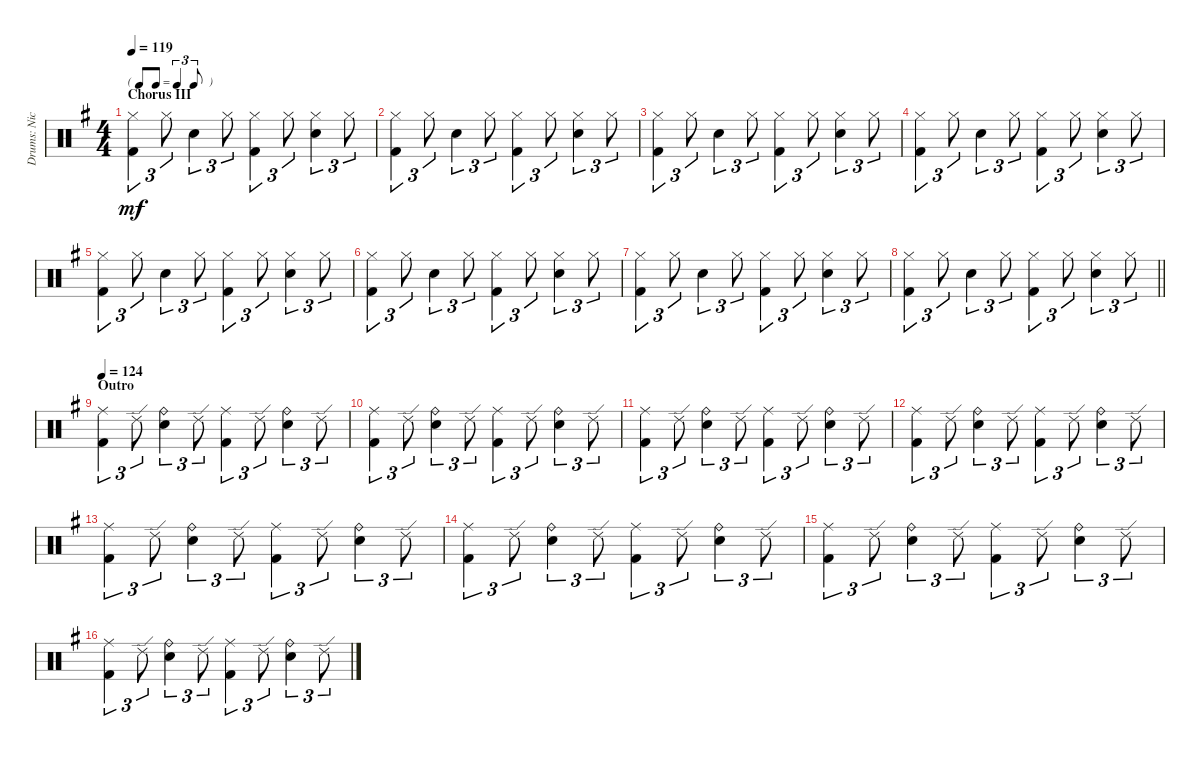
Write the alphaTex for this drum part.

\track ("Drums: Nick" "Drums: Nic") {instrument percussion}
\staff {score}
\articulation defaults
\ts (4 4)
\tf triplet8th
\section ("" "Chorus III")
\tempo 119
\clef neutral
\ks g
("Hi-Hat (closed)" "Kick (hit) 2").4{tu (3 2) dy mf} "Hi-Hat (closed)".8{tu (3 2)} "Electric Snare (hit)".4{tu (3 2)} "Hi-Hat (closed)".8{tu (3 2)} ("Hi-Hat (closed)" "Kick (hit) 2").4{tu (3 2)} "Hi-Hat (closed)".8{tu (3 2)} ("Hi-Hat (closed)" "Electric Snare (hit)").4{tu (3 2)} "Hi-Hat (closed)".8{tu (3 2)} |
("Hi-Hat (closed)" "Kick (hit) 2").4{tu (3 2)} "Hi-Hat (closed)".8{tu (3 2)} "Electric Snare (hit)".4{tu (3 2)} "Hi-Hat (closed)".8{tu (3 2)} ("Hi-Hat (closed)" "Kick (hit) 2").4{tu (3 2)} "Hi-Hat (closed)".8{tu (3 2)} ("Hi-Hat (closed)" "Electric Snare (hit)").4{tu (3 2)} "Hi-Hat (closed)".8{tu (3 2)} |
("Hi-Hat (closed)" "Kick (hit) 2").4{tu (3 2)} "Hi-Hat (closed)".8{tu (3 2)} "Electric Snare (hit)".4{tu (3 2)} "Hi-Hat (closed)".8{tu (3 2)} ("Hi-Hat (closed)" "Kick (hit) 2").4{tu (3 2)} "Hi-Hat (closed)".8{tu (3 2)} ("Hi-Hat (closed)" "Electric Snare (hit)").4{tu (3 2)} "Hi-Hat (closed)".8{tu (3 2)} |
("Hi-Hat (closed)" "Kick (hit) 2").4{tu (3 2)} "Hi-Hat (closed)".8{tu (3 2)} "Electric Snare (hit)".4{tu (3 2)} "Hi-Hat (closed)".8{tu (3 2)} ("Hi-Hat (closed)" "Kick (hit) 2").4{tu (3 2)} "Hi-Hat (closed)".8{tu (3 2)} ("Hi-Hat (closed)" "Electric Snare (hit)").4{tu (3 2)} "Hi-Hat (closed)".8{tu (3 2)} |
("Hi-Hat (closed)" "Kick (hit) 2").4{tu (3 2)} "Hi-Hat (closed)".8{tu (3 2)} "Electric Snare (hit)".4{tu (3 2)} "Hi-Hat (closed)".8{tu (3 2)} ("Hi-Hat (closed)" "Kick (hit) 2").4{tu (3 2)} "Hi-Hat (closed)".8{tu (3 2)} ("Hi-Hat (closed)" "Electric Snare (hit)").4{tu (3 2)} "Hi-Hat (closed)".8{tu (3 2)} |
("Hi-Hat (closed)" "Kick (hit) 2").4{tu (3 2)} "Hi-Hat (closed)".8{tu (3 2)} "Electric Snare (hit)".4{tu (3 2)} "Hi-Hat (closed)".8{tu (3 2)} ("Hi-Hat (closed)" "Kick (hit) 2").4{tu (3 2)} "Hi-Hat (closed)".8{tu (3 2)} ("Hi-Hat (closed)" "Electric Snare (hit)").4{tu (3 2)} "Hi-Hat (closed)".8{tu (3 2)} |
("Hi-Hat (closed)" "Kick (hit) 2").4{tu (3 2)} "Hi-Hat (closed)".8{tu (3 2)} "Electric Snare (hit)".4{tu (3 2)} "Hi-Hat (closed)".8{tu (3 2)} ("Hi-Hat (closed)" "Kick (hit) 2").4{tu (3 2)} "Hi-Hat (closed)".8{tu (3 2)} ("Hi-Hat (closed)" "Electric Snare (hit)").4{tu (3 2)} "Hi-Hat (closed)".8{tu (3 2)} |
\barLineRight lightlight
("Hi-Hat (closed)" "Kick (hit) 2").4{tu (3 2)} "Hi-Hat (closed)".8{tu (3 2)} "Electric Snare (hit)".4{tu (3 2)} "Hi-Hat (closed)".8{tu (3 2)} ("Hi-Hat (closed)" "Kick (hit) 2").4{tu (3 2)} "Hi-Hat (closed)".8{tu (3 2)} ("Hi-Hat (closed)" "Electric Snare (hit)").4{tu (3 2)} "Hi-Hat (closed)".8{tu (3 2)} |
\section ("" "Outro")
\tempo 124
("Ride (middle)" "Kick (hit) 2").4{tu (3 2)} "Ride (edge) 2".8{tu (3 2)} ("Ride (bell)" "Electric Snare (hit)").4{tu (3 2)} "Ride (edge) 2".8{tu (3 2)} ("Ride (middle)" "Kick (hit) 2").4{tu (3 2)} "Ride (edge) 2".8{tu (3 2)} ("Ride (bell)" "Electric Snare (hit)").4{tu (3 2)} "Ride (edge) 2".8{tu (3 2)} |
("Ride (middle)" "Kick (hit) 2").4{tu (3 2)} "Ride (edge) 2".8{tu (3 2)} ("Ride (bell)" "Electric Snare (hit)").4{tu (3 2)} "Ride (edge) 2".8{tu (3 2)} ("Ride (middle)" "Kick (hit) 2").4{tu (3 2)} "Ride (edge) 2".8{tu (3 2)} ("Ride (bell)" "Electric Snare (hit)").4{tu (3 2)} "Ride (edge) 2".8{tu (3 2)} |
("Ride (middle)" "Kick (hit) 2").4{tu (3 2)} "Ride (edge) 2".8{tu (3 2)} ("Ride (bell)" "Electric Snare (hit)").4{tu (3 2)} "Ride (edge) 2".8{tu (3 2)} ("Ride (middle)" "Kick (hit) 2").4{tu (3 2)} "Ride (edge) 2".8{tu (3 2)} ("Ride (bell)" "Electric Snare (hit)").4{tu (3 2)} "Ride (edge) 2".8{tu (3 2)} |
("Ride (middle)" "Kick (hit) 2").4{tu (3 2)} "Ride (edge) 2".8{tu (3 2)} ("Ride (bell)" "Electric Snare (hit)").4{tu (3 2)} "Ride (edge) 2".8{tu (3 2)} ("Ride (middle)" "Kick (hit) 2").4{tu (3 2)} "Ride (edge) 2".8{tu (3 2)} ("Ride (bell)" "Electric Snare (hit)").4{tu (3 2)} "Ride (edge) 2".8{tu (3 2)} |
("Ride (middle)" "Kick (hit) 2").4{tu (3 2)} "Ride (edge) 2".8{tu (3 2)} ("Ride (bell)" "Electric Snare (hit)").4{tu (3 2)} "Ride (edge) 2".8{tu (3 2)} ("Ride (middle)" "Kick (hit) 2").4{tu (3 2)} "Ride (edge) 2".8{tu (3 2)} ("Ride (bell)" "Electric Snare (hit)").4{tu (3 2)} "Ride (edge) 2".8{tu (3 2)} |
("Ride (middle)" "Kick (hit) 2").4{tu (3 2)} "Ride (edge) 2".8{tu (3 2)} ("Ride (bell)" "Electric Snare (hit)").4{tu (3 2)} "Ride (edge) 2".8{tu (3 2)} ("Ride (middle)" "Kick (hit) 2").4{tu (3 2)} "Ride (edge) 2".8{tu (3 2)} ("Ride (bell)" "Electric Snare (hit)").4{tu (3 2)} "Ride (edge) 2".8{tu (3 2)} |
("Ride (middle)" "Kick (hit) 2").4{tu (3 2)} "Ride (edge) 2".8{tu (3 2)} ("Ride (bell)" "Electric Snare (hit)").4{tu (3 2)} "Ride (edge) 2".8{tu (3 2)} ("Ride (middle)" "Kick (hit) 2").4{tu (3 2)} "Ride (edge) 2".8{tu (3 2)} ("Ride (bell)" "Electric Snare (hit)").4{tu (3 2)} "Ride (edge) 2".8{tu (3 2)} |
("Ride (middle)" "Kick (hit) 2").4{tu (3 2)} "Ride (edge) 2".8{tu (3 2)} ("Ride (bell)" "Electric Snare (hit)").4{tu (3 2)} "Ride (edge) 2".8{tu (3 2)} ("Ride (middle)" "Kick (hit) 2").4{tu (3 2)} "Ride (edge) 2".8{tu (3 2)} ("Ride (bell)" "Electric Snare (hit)").4{tu (3 2)} "Ride (edge) 2".8{tu (3 2)}
